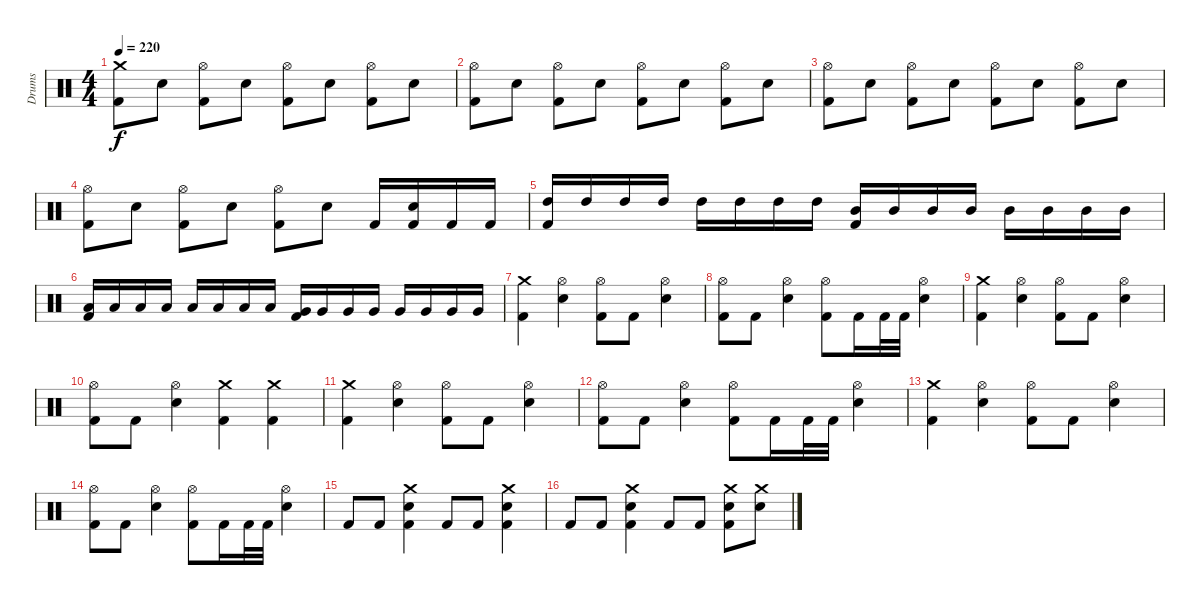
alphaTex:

\track ("Drums" "Drums") {instrument percussion}
\staff {score}
\articulation defaults
\ts (4 4)
\tempo 220
\clef neutral
\ks c
("Crash medium (hit)" "Kick (hit) 2").8{dy f} "Electric Snare (hit)".8 ("Hi-Hat (open)" "Kick (hit) 2").8 "Electric Snare (hit)".8 ("Hi-Hat (open)" "Kick (hit) 2").8 "Electric Snare (hit)".8 ("Hi-Hat (open)" "Kick (hit) 2").8 "Electric Snare (hit)".8 |
("Hi-Hat (open)" "Kick (hit) 2").8 "Electric Snare (hit)".8 ("Hi-Hat (open)" "Kick (hit) 2").8 "Electric Snare (hit)".8 ("Hi-Hat (open)" "Kick (hit) 2").8 "Electric Snare (hit)".8 ("Hi-Hat (open)" "Kick (hit) 2").8 "Electric Snare (hit)".8 |
("Hi-Hat (open)" "Kick (hit) 2").8 "Electric Snare (hit)".8 ("Hi-Hat (open)" "Kick (hit) 2").8 "Electric Snare (hit)".8 ("Hi-Hat (open)" "Kick (hit) 2").8 "Electric Snare (hit)".8 ("Hi-Hat (open)" "Kick (hit) 2").8 "Electric Snare (hit)".8 |
("Hi-Hat (open)" "Kick (hit) 2").8 "Electric Snare (hit)".8 ("Hi-Hat (open)" "Kick (hit) 2").8 "Electric Snare (hit)".8 ("Hi-Hat (open)" "Kick (hit) 2").8 "Electric Snare (hit)".8 "Kick (hit) 2".16 ("Kick (hit) 2" "Electric Snare (hit)").16 "Kick (hit) 2".16 "Kick (hit) 2".16 |
("Kick (hit) 2" "High Tom (hit)").16 "High Tom (hit)".16 "High Tom (hit)".16 "High Tom (hit)".16 "High Tom (hit)".16 "High Tom (hit)".16 "High Tom (hit)".16 "High Tom (hit)".16 ("Kick (hit) 2" "Mid Tom (hit)").16 "Mid Tom (hit)".16 "Mid Tom (hit)".16 "Mid Tom (hit)".16 "Mid Tom (hit)".16 "Mid Tom (hit)".16 "Mid Tom (hit)".16 "Mid Tom (hit)".16 |
("Kick (hit) 2" "Low Tom (hit)").16 "Low Tom (hit)".16 "Low Tom (hit)".16 "Low Tom (hit)".16 "Low Tom (hit)".16 "Low Tom (hit)".16 "Low Tom (hit)".16 "Low Tom (hit)".16 ("Kick (hit) 2" "Very Low Tom (hit)").16 "Very Low Tom (hit)".16 "Very Low Tom (hit)".16 "Very Low Tom (hit)".16 "Very Low Tom (hit)".16 "Very Low Tom (hit)".16 "Very Low Tom (hit)".16 "Very Low Tom (hit)".16 |
("Kick (hit) 2" "Crash medium (hit)").4 ("Hi-Hat (open)" "Electric Snare (hit)").4 ("Hi-Hat (open)" "Kick (hit) 2").8 "Kick (hit) 2".8 ("Hi-Hat (open)" "Electric Snare (hit)").4 |
("Hi-Hat (open)" "Kick (hit) 2").8 "Kick (hit) 2".8 ("Hi-Hat (open)" "Electric Snare (hit)").4 ("Hi-Hat (open)" "Kick (hit) 2").8 "Kick (hit) 2".16 "Kick (hit) 2".32 "Kick (hit) 2".32 ("Hi-Hat (open)" "Electric Snare (hit)").4 |
("Kick (hit) 2" "Crash medium (hit)").4 ("Hi-Hat (open)" "Electric Snare (hit)").4 ("Hi-Hat (open)" "Kick (hit) 2").8 "Kick (hit) 2".8 ("Hi-Hat (open)" "Electric Snare (hit)").4 |
("Hi-Hat (open)" "Kick (hit) 2").8 "Kick (hit) 2".8 ("Hi-Hat (open)" "Electric Snare (hit)").4 ("Kick (hit) 2" "Crash medium (hit)").4 ("Kick (hit) 2" "Crash medium (hit)").4 |
("Kick (hit) 2" "Crash medium (hit)").4 ("Hi-Hat (open)" "Electric Snare (hit)").4 ("Hi-Hat (open)" "Kick (hit) 2").8 "Kick (hit) 2".8 ("Hi-Hat (open)" "Electric Snare (hit)").4 |
("Hi-Hat (open)" "Kick (hit) 2").8 "Kick (hit) 2".8 ("Hi-Hat (open)" "Electric Snare (hit)").4 ("Hi-Hat (open)" "Kick (hit) 2").8 "Kick (hit) 2".16 "Kick (hit) 2".32 "Kick (hit) 2".32 ("Hi-Hat (open)" "Electric Snare (hit)").4 |
("Kick (hit) 2" "Crash medium (hit)").4 ("Hi-Hat (open)" "Electric Snare (hit)").4 ("Hi-Hat (open)" "Kick (hit) 2").8 "Kick (hit) 2".8 ("Hi-Hat (open)" "Electric Snare (hit)").4 |
("Hi-Hat (open)" "Kick (hit) 2").8 "Kick (hit) 2".8 ("Hi-Hat (open)" "Electric Snare (hit)").4 ("Hi-Hat (open)" "Kick (hit) 2").8 "Kick (hit) 2".16 "Kick (hit) 2".32 "Kick (hit) 2".32 ("Hi-Hat (open)" "Electric Snare (hit)").4 |
"Kick (hit) 2".8 "Kick (hit) 2".8 ("Crash medium (hit)" "Kick (hit) 2" "Electric Snare (hit)").4 "Kick (hit) 2".8 "Kick (hit) 2".8 ("Crash medium (hit)" "Kick (hit) 2" "Electric Snare (hit)").4 |
"Kick (hit) 2".8 "Kick (hit) 2".8 ("Crash medium (hit)" "Kick (hit) 2" "Electric Snare (hit)").4 "Kick (hit) 2".8 "Kick (hit) 2".8 ("Crash medium (hit)" "Kick (hit) 2" "Electric Snare (hit)").8 ("Crash medium (hit)" "Electric Snare (hit)").8
